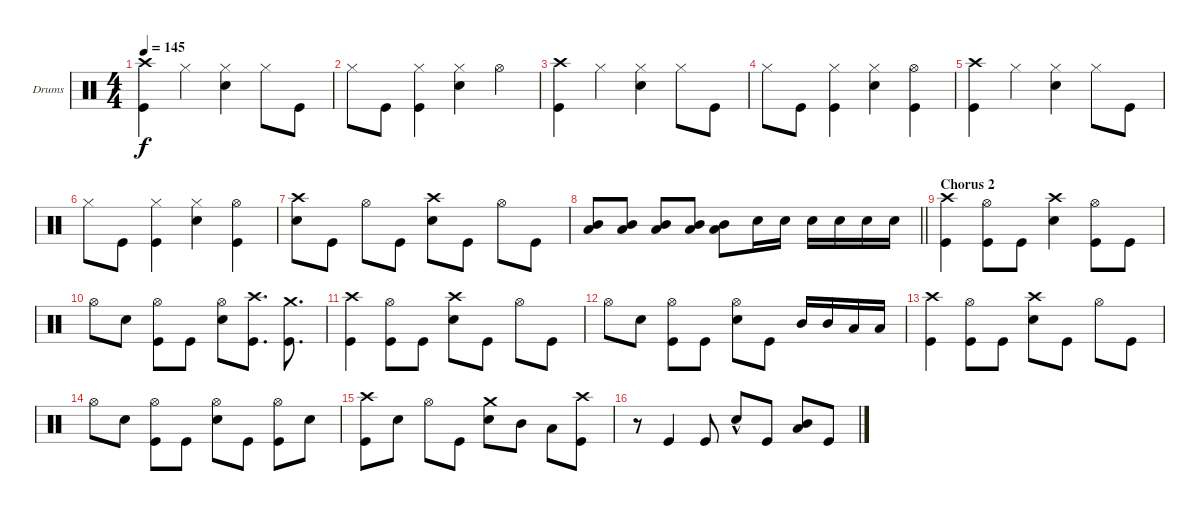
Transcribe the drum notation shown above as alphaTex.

\bracketExtendMode groupsimilarinstruments
\firstSystemTrackNameOrientation horizontal
\otherSystemsTrackNameOrientation horizontal
\track ("drums (Anton Zulganov)" "Drums") {instrument percussion}
\staff {score}
\articulation defaults
\ts (4 4)
\tempo 145
\clef neutral
\ks aminor
("Kick (hit)" "Crash high (hit)").4{dy f} "Hi-Hat (closed)".4 ("Hi-Hat (closed)" "Snare (hit) 2").4 "Hi-Hat (closed)".8 "Kick (hit)".8 |
"Hi-Hat (closed)".8 "Kick (hit)".8 ("Hi-Hat (closed)" "Kick (hit)").4 ("Hi-Hat (closed)" "Snare (hit) 2").4 "Hi-Hat (open)".4 |
("Kick (hit)" "Crash high (hit)").4 "Hi-Hat (closed)".4 ("Hi-Hat (closed)" "Snare (hit) 2").4 "Hi-Hat (closed)".8 "Kick (hit)".8 |
"Hi-Hat (closed)".8 "Kick (hit)".8 ("Hi-Hat (closed)" "Kick (hit)").4 ("Hi-Hat (closed)" "Snare (hit) 2").4 ("Hi-Hat (open)" "Kick (hit)").4 |
("Kick (hit)" "Crash high (hit)").4 "Hi-Hat (closed)".4 ("Hi-Hat (closed)" "Snare (hit) 2").4 "Hi-Hat (closed)".8 "Kick (hit)".8 |
"Hi-Hat (closed)".8 "Kick (hit)".8 ("Hi-Hat (closed)" "Kick (hit)").4 ("Hi-Hat (closed)" "Snare (hit) 2").4 ("Hi-Hat (open)" "Kick (hit)").4 |
("Snare (hit) 2" "Crash high (hit)").8 "Kick (hit)".8 "Hi-Hat (open)".8 "Kick (hit)".8 ("Snare (hit) 2" "Crash high (hit)").8 "Kick (hit)".8 "Hi-Hat (open)".8 "Kick (hit)".8 |
\barLineRight lightlight
("Mid Tom (hit)" "Low Tom (hit)").8 ("Mid Tom (hit)" "Low Tom (hit)").8 ("Mid Tom (hit)" "Low Tom (hit)").8 ("Mid Tom (hit)" "Low Tom (hit)").8 ("Mid Tom (hit)" "Low Tom (hit)").8 "Snare (hit) 2".16 "Snare (hit) 2".16 "Snare (hit) 2".16 "Snare (hit) 2".16 "Snare (hit) 2".16 "Snare (hit) 2".16 |
\section ("" "Chorus 2")
("Kick (hit)" "Crash high (hit)").4 ("Hi-Hat (open)" "Kick (hit)").8 "Kick (hit)".8 ("Snare (hit) 2" "Crash high (hit)").4 ("Hi-Hat (open)" "Kick (hit)").8 "Kick (hit)".8 |
"Hi-Hat (open)".8 "Snare (hit) 2".8 ("Hi-Hat (open)" "Kick (hit)").8 "Kick (hit)".8 ("Hi-Hat (open)" "Snare (hit) 2").8 ("Kick (hit)" "Crash high (hit)").8{d} ("Kick (hit)" "Crash medium (hit)").8{d} |
("Kick (hit)" "Crash high (hit)").4 ("Hi-Hat (open)" "Kick (hit)").8 "Kick (hit)".8 ("Snare (hit) 2" "Crash high (hit)").8 "Kick (hit)".8 "Hi-Hat (open)".8 "Kick (hit)".8 |
"Hi-Hat (open)".8 "Snare (hit) 2".8 ("Hi-Hat (open)" "Kick (hit)").8 "Kick (hit)".8 ("Hi-Hat (open)" "Snare (hit) 2").8 "Kick (hit)".8 "Mid Tom (hit)".16 "Mid Tom (hit)".16 "Low Tom (hit)".16 "Low Tom (hit)".16 |
("Kick (hit)" "Crash high (hit)").4 ("Hi-Hat (open)" "Kick (hit)").8 "Kick (hit)".8 ("Snare (hit) 2" "Crash high (hit)").8 "Kick (hit)".8 "Hi-Hat (open)".8 "Kick (hit)".8 |
"Hi-Hat (open)".8 "Snare (hit) 2".8 ("Hi-Hat (open)" "Kick (hit)").8 "Kick (hit)".8 ("Hi-Hat (open)" "Snare (hit) 2").8 "Kick (hit)".8 ("Hi-Hat (open)" "Kick (hit)").8 "Snare (hit) 2".8 |
("Kick (hit)" "Crash high (hit)").8 "Snare (hit) 2".8 "Hi-Hat (open)".8 "Kick (hit)".8 ("Snare (hit) 2" "Crash medium (hit)").8 "Mid Tom (hit)".8 "Low Tom (hit)".8 ("Crash high (hit)" "Kick (hit)").8 |
r.8 "Kick (hit)".4 "Kick (hit)".8 "Snare (hit) 2"{hac}.8 "Kick (hit)".8 ("Low Tom (hit)" "Mid Tom (hit)").8 "Kick (hit)".8
